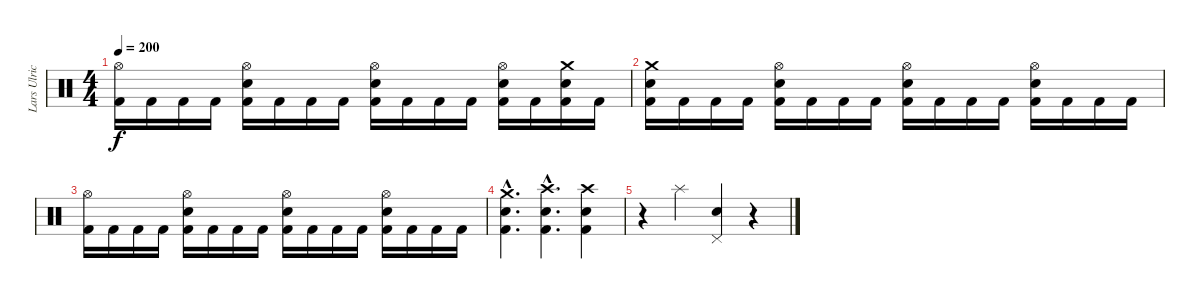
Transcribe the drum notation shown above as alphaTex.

\track ("Lars Ulrich" "Lars Ulric") {instrument percussion}
\staff {score}
\articulation defaults
\ts (4 4)
\tempo 200
\clef neutral
\ks c
("Hi-Hat (open)" "Kick (hit) 2").16{dy f} "Kick (hit) 2".16 "Kick (hit) 2".16 "Kick (hit) 2".16 ("Hi-Hat (open)" "Electric Snare (hit)" "Kick (hit) 2").16 "Kick (hit) 2".16 "Kick (hit) 2".16 "Kick (hit) 2".16 ("Hi-Hat (open)" "Electric Snare (hit)" "Kick (hit) 2").16 "Kick (hit) 2".16 "Kick (hit) 2".16 "Kick (hit) 2".16 ("Hi-Hat (open)" "Electric Snare (hit)" "Kick (hit) 2").16 "Kick (hit) 2".16 ("Crash medium (hit)" "Electric Snare (hit)" "Kick (hit) 2").16 "Kick (hit) 2".16 |
("Crash medium (hit)" "Electric Snare (hit)" "Kick (hit) 2").16 "Kick (hit) 2".16 "Kick (hit) 2".16 "Kick (hit) 2".16 ("Hi-Hat (open)" "Electric Snare (hit)" "Kick (hit) 2").16 "Kick (hit) 2".16 "Kick (hit) 2".16 "Kick (hit) 2".16 ("Hi-Hat (open)" "Electric Snare (hit)" "Kick (hit) 2").16 "Kick (hit) 2".16 "Kick (hit) 2".16 "Kick (hit) 2".16 ("Hi-Hat (open)" "Electric Snare (hit)" "Kick (hit) 2").16 "Kick (hit) 2".16 "Kick (hit) 2".16 "Kick (hit) 2".16 |
("Hi-Hat (open)" "Kick (hit) 2").16 "Kick (hit) 2".16 "Kick (hit) 2".16 "Kick (hit) 2".16 ("Hi-Hat (open)" "Electric Snare (hit)" "Kick (hit) 2").16 "Kick (hit) 2".16 "Kick (hit) 2".16 "Kick (hit) 2".16 ("Hi-Hat (open)" "Electric Snare (hit)" "Kick (hit) 2").16 "Kick (hit) 2".16 "Kick (hit) 2".16 "Kick (hit) 2".16 ("Hi-Hat (open)" "Electric Snare (hit)" "Kick (hit) 2").16 "Kick (hit) 2".16 "Kick (hit) 2".16 "Kick (hit) 2".16 |
("Crash medium (hit)"{hac} "Electric Snare (hit)"{hac} "Kick (hit) 2"{hac}).4{d} ("Crash high (hit)"{hac} "Electric Snare (hit)"{hac} "Kick (hit) 2"{hac}).4{d} ("Crash high (hit)" "Electric Snare (hit)" "Kick (hit) 2").4 |
r.4 "Splash (hit)".4 ("Pedal Hi-Hat (hit)" "Electric Snare (hit)").4 r.4
